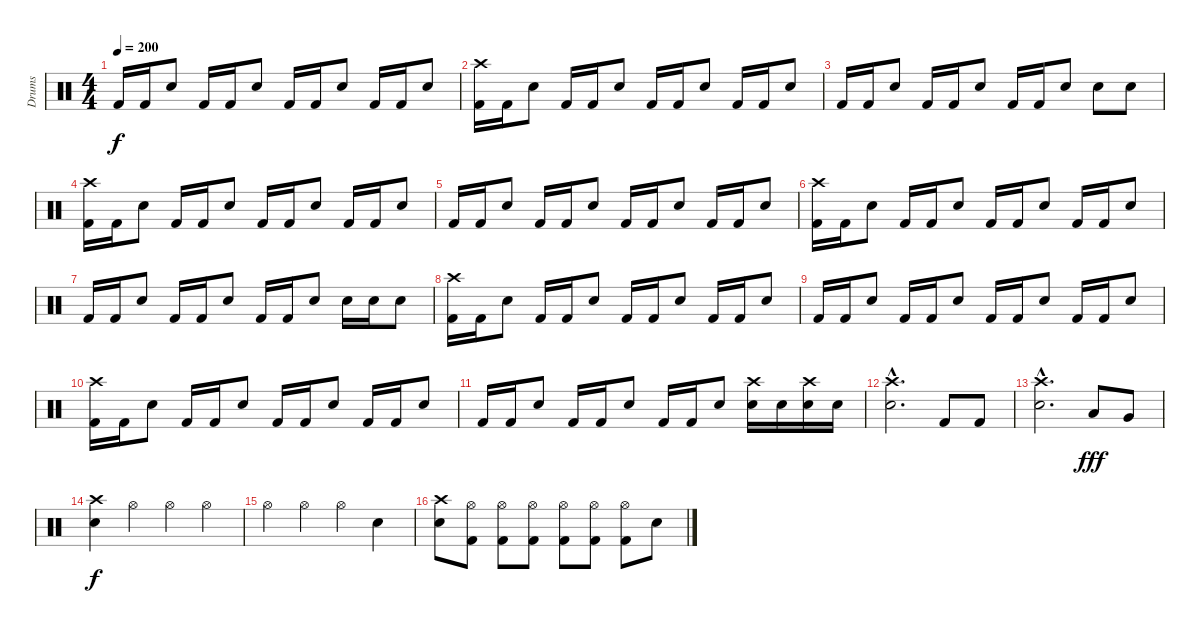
\track ("Drums" "Drums") {instrument percussion}
\staff {score}
\articulation defaults
\ts (4 4)
\tempo 200
\clef neutral
\ks c "Kick (hit) 2".16{dy f} "Kick (hit) 2".16 "Snare (hit) 2".8 "Kick (hit) 2".16 "Kick (hit) 2".16 "Snare (hit) 2".8 "Kick (hit) 2".16 "Kick (hit) 2".16 "Snare (hit) 2".8 "Kick (hit) 2".16 "Kick (hit) 2".16 "Snare (hit) 2".8
|
("Crash high (hit)" "Kick (hit) 2").16 "Kick (hit) 2".16 "Snare (hit) 2".8 "Kick (hit) 2".16 "Kick (hit) 2".16 "Snare (hit) 2".8 "Kick (hit) 2".16 "Kick (hit) 2".16 "Snare (hit) 2".8 "Kick (hit) 2".16 "Kick (hit) 2".16 "Snare (hit) 2".8 |
"Kick (hit) 2".16 "Kick (hit) 2".16 "Snare (hit) 2".8 "Kick (hit) 2".16 "Kick (hit) 2".16 "Snare (hit) 2".8 "Kick (hit) 2".16 "Kick (hit) 2".16 "Snare (hit) 2".8 "Snare (hit) 2".8 "Snare (hit) 2".8 |
("Crash high (hit)" "Kick (hit) 2").16 "Kick (hit) 2".16 "Snare (hit) 2".8 "Kick (hit) 2".16 "Kick (hit) 2".16 "Snare (hit) 2".8 "Kick (hit) 2".16 "Kick (hit) 2".16 "Snare (hit) 2".8 "Kick (hit) 2".16 "Kick (hit) 2".16 "Snare (hit) 2".8 |
"Kick (hit) 2".16 "Kick (hit) 2".16 "Snare (hit) 2".8 "Kick (hit) 2".16 "Kick (hit) 2".16 "Snare (hit) 2".8 "Kick (hit) 2".16 "Kick (hit) 2".16 "Snare (hit) 2".8 "Kick (hit) 2".16 "Kick (hit) 2".16 "Snare (hit) 2".8 |
("Crash high (hit)" "Kick (hit) 2").16 "Kick (hit) 2".16 "Snare (hit) 2".8 "Kick (hit) 2".16 "Kick (hit) 2".16 "Snare (hit) 2".8 "Kick (hit) 2".16 "Kick (hit) 2".16 "Snare (hit) 2".8 "Kick (hit) 2".16 "Kick (hit) 2".16 "Snare (hit) 2".8 |
"Kick (hit) 2".16 "Kick (hit) 2".16 "Snare (hit) 2".8 "Kick (hit) 2".16 "Kick (hit) 2".16 "Snare (hit) 2".8 "Kick (hit) 2".16 "Kick (hit) 2".16 "Snare (hit) 2".8 "Snare (hit) 2".16 "Snare (hit) 2".16 "Snare (hit) 2".8 |
("Crash high (hit)" "Kick (hit) 2").16 "Kick (hit) 2".16 "Snare (hit) 2".8 "Kick (hit) 2".16 "Kick (hit) 2".16 "Snare (hit) 2".8 "Kick (hit) 2".16 "Kick (hit) 2".16 "Snare (hit) 2".8 "Kick (hit) 2".16 "Kick (hit) 2".16 "Snare (hit) 2".8 |
"Kick (hit) 2".16 "Kick (hit) 2".16 "Snare (hit) 2".8 "Kick (hit) 2".16 "Kick (hit) 2".16 "Snare (hit) 2".8 "Kick (hit) 2".16 "Kick (hit) 2".16 "Snare (hit) 2".8 "Kick (hit) 2".16 "Kick (hit) 2".16 "Snare (hit) 2".8 |
("Crash high (hit)" "Kick (hit) 2").16 "Kick (hit) 2".16 "Snare (hit) 2".8 "Kick (hit) 2".16 "Kick (hit) 2".16 "Snare (hit) 2".8 "Kick (hit) 2".16 "Kick (hit) 2".16 "Snare (hit) 2".8 "Kick (hit) 2".16 "Kick (hit) 2".16 "Snare (hit) 2".8 |
"Kick (hit) 2".16 "Kick (hit) 2".16 "Snare (hit) 2".8 "Kick (hit) 2".16 "Kick (hit) 2".16 "Snare (hit) 2".8 "Kick (hit) 2".16 "Kick (hit) 2".16 "Snare (hit) 2".8 ("Crash high (hit)" "Snare (hit) 2").16 "Snare (hit) 2".16 ("Crash high (hit)" "Snare (hit) 2").16 "Snare (hit) 2".16 |
("Crash high (hit)"{hac} "Snare (hit) 2"{hac}).2{d} "Kick (hit) 2".8 "Kick (hit) 2".8 |
("Crash high (hit)"{hac} "Snare (hit) 2"{hac}).2{d} "Low Tom (hit)".8{dy fff} "Very Low Tom (hit)".8 |
("Crash high (hit)" "Snare (hit) 2").4{dy f} "Hi-Hat (open)".4 "Hi-Hat (open)".4 "Hi-Hat (open)".4 |
"Hi-Hat (open)".4 "Hi-Hat (open)".4 "Hi-Hat (open)".4 "Snare (hit) 2".4 |
("Crash high (hit)" "Snare (hit) 2").8 ("Hi-Hat (open)" "Kick (hit) 2").8 ("Hi-Hat (open)" "Kick (hit) 2").8 ("Hi-Hat (open)" "Kick (hit) 2").8 ("Hi-Hat (open)" "Kick (hit) 2").8 ("Hi-Hat (open)" "Kick (hit) 2").8 ("Hi-Hat (open)" "Kick (hit) 2").8 "Snare (hit) 2".8
